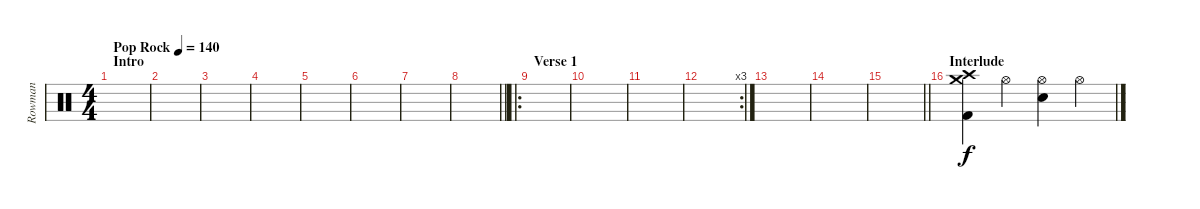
\track ("Rowman" "Rowman") {instrument percussion}
\staff {score}
\articulation defaults
\ts (4 4)
\section ("" "Intro")
\tempo (140 "Pop Rock")
\clef neutral
\ks c
|
|
|
|
|
|
|
\barLineRight lightlight
|
\ro
\section ("" "Verse 1")
|
|
|
\rc 3
|
|
|
\barLineRight lightlight
|
\section ("" "Interlude")
("Crash high (hit)" "Crash medium (hit)" "Kick (hit) 2").4 "Hi-Hat (open)".4 ("Hi-Hat (open)" "Snare (hit) 2").4 "Hi-Hat (open)".4
